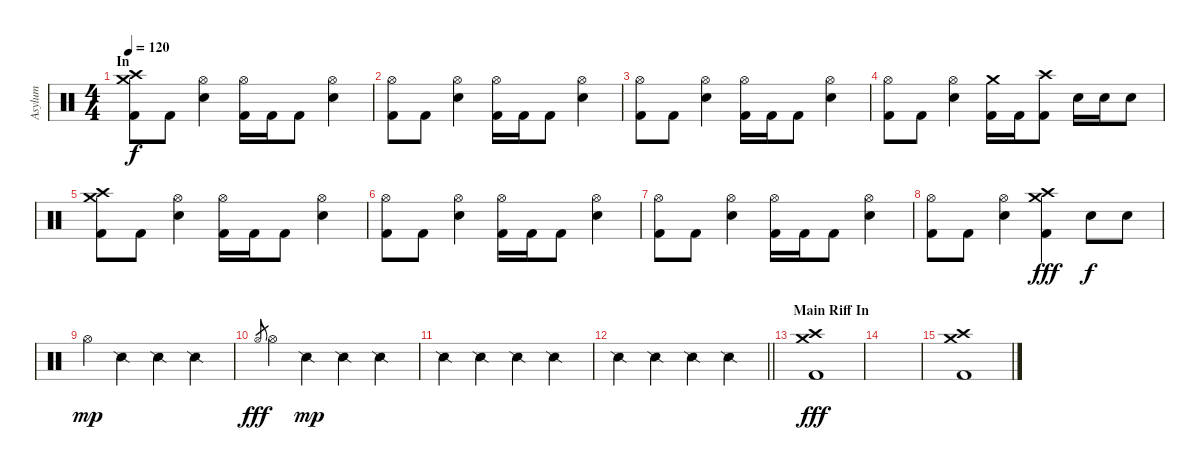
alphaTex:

\track ("Asylum" "Asylum") {instrument percussion}
\staff {score}
\articulation defaults
\ts (4 4)
\section ("" "In")
\tempo 120
\clef neutral
\ks c
("Crash medium (hit)" "Crash high (hit)" "Kick (hit) 2").8{dy f} "Kick (hit) 2".8 ("Hi-Hat (open)" "Electric Snare (hit)").4 ("Hi-Hat (open)" "Kick (hit) 2").16 "Kick (hit) 2".16 "Kick (hit) 2".8 ("Hi-Hat (open)" "Electric Snare (hit)").4 |
("Hi-Hat (open)" "Kick (hit) 2").8 "Kick (hit) 2".8 ("Hi-Hat (open)" "Electric Snare (hit)").4 ("Hi-Hat (open)" "Kick (hit) 2").16 "Kick (hit) 2".16 "Kick (hit) 2".8 ("Hi-Hat (open)" "Electric Snare (hit)").4 |
("Hi-Hat (open)" "Kick (hit) 2").8 "Kick (hit) 2".8 ("Hi-Hat (open)" "Electric Snare (hit)").4 ("Hi-Hat (open)" "Kick (hit) 2").16 "Kick (hit) 2".16 "Kick (hit) 2".8 ("Hi-Hat (open)" "Electric Snare (hit)").4 |
("Hi-Hat (open)" "Kick (hit) 2").8 "Kick (hit) 2".8 ("Hi-Hat (open)" "Electric Snare (hit)").4 ("Crash medium (hit)" "Kick (hit) 2").16 "Kick (hit) 2".16 ("Crash high (hit)" "Kick (hit) 2").8 "Electric Snare (hit)".16 "Electric Snare (hit)".16 "Electric Snare (hit)".8 |
("Crash medium (hit)" "Crash high (hit)" "Kick (hit) 2").8 "Kick (hit) 2".8 ("Hi-Hat (open)" "Electric Snare (hit)").4 ("Hi-Hat (open)" "Kick (hit) 2").16 "Kick (hit) 2".16 "Kick (hit) 2".8 ("Hi-Hat (open)" "Electric Snare (hit)").4 |
("Hi-Hat (open)" "Kick (hit) 2").8 "Kick (hit) 2".8 ("Hi-Hat (open)" "Electric Snare (hit)").4 ("Hi-Hat (open)" "Kick (hit) 2").16 "Kick (hit) 2".16 "Kick (hit) 2".8 ("Hi-Hat (open)" "Electric Snare (hit)").4 |
("Hi-Hat (open)" "Kick (hit) 2").8 "Kick (hit) 2".8 ("Hi-Hat (open)" "Electric Snare (hit)").4 ("Hi-Hat (open)" "Kick (hit) 2").16 "Kick (hit) 2".16 "Kick (hit) 2".8 ("Hi-Hat (open)" "Electric Snare (hit)").4 |
("Hi-Hat (open)" "Kick (hit) 2").8 "Kick (hit) 2".8 ("Hi-Hat (open)" "Electric Snare (hit)").4 ("Crash high (hit)" "Crash medium (hit)" "Kick (hit) 2").4{dy fff} "Electric Snare (hit)".8{dy f} "Electric Snare (hit)".8 |
"Hi-Hat (open)".4{dy mp} "Snare (side stick) 2".4 "Snare (side stick) 2".4 "Snare (side stick) 2".4 |
"Hi-Hat (open)"{h}.8{gr dy fff} "Hi-Hat (open)".4 "Snare (side stick) 2".4{dy mp} "Snare (side stick) 2".4 "Snare (side stick) 2".4 |
"Snare (side stick) 2".4 "Snare (side stick) 2".4 "Snare (side stick) 2".4 "Snare (side stick) 2".4 |
\barLineRight lightlight "Snare (side stick) 2".4 "Snare (side stick) 2".4 "Snare (side stick) 2".4 "Snare (side stick) 2".4
|
\section ("" "Main Riff In")
("Crash high (hit)" "Crash medium (hit)" "Kick (hit) 2").1{dy fff volume 16} |
|
("Crash high (hit)" "Crash medium (hit)" "Kick (hit) 2").1
